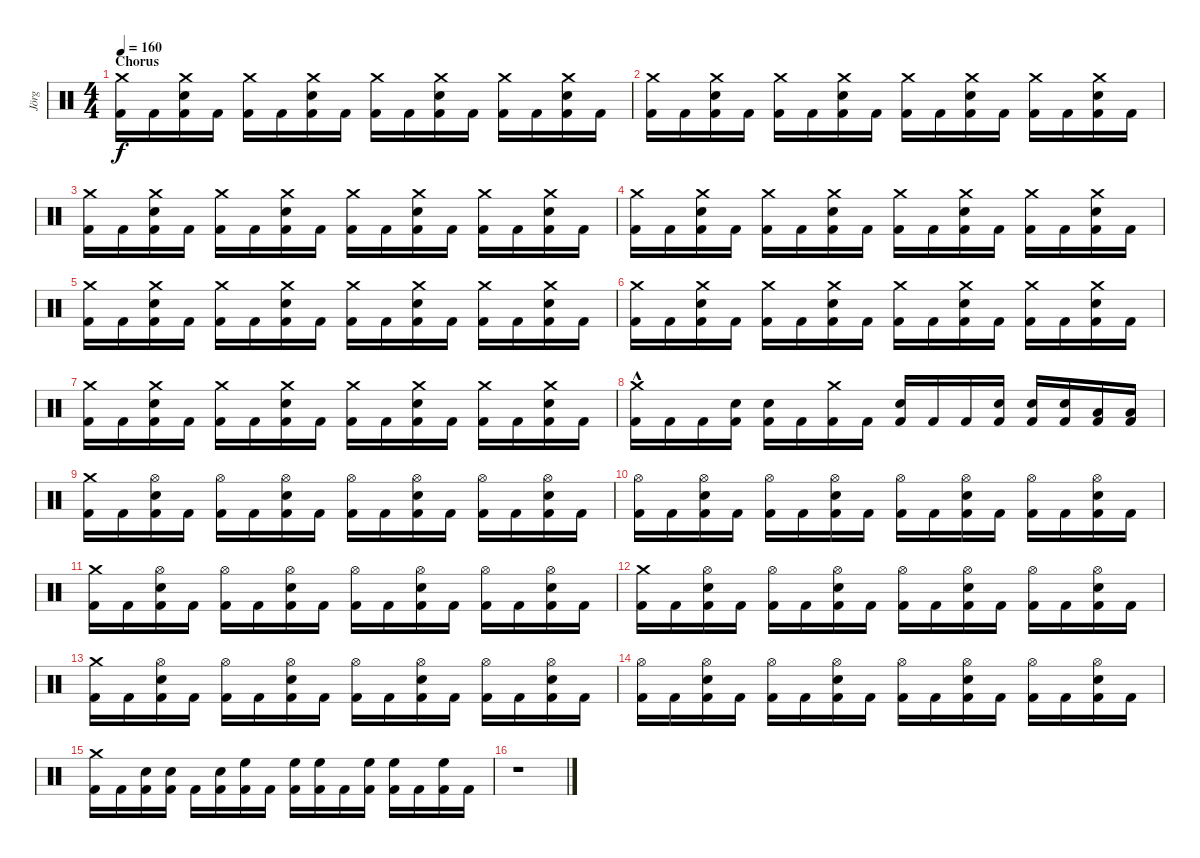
\track ("Jörg" "Jörg") {instrument percussion}
\staff {score}
\articulation defaults
\ts (4 4)
\section ("" "Chorus")
\tempo 160
\clef neutral
\ks c
("Crash medium (hit)" "Kick (hit) 2").16{dy f} "Kick (hit) 2".16 ("Crash medium (hit)" "Snare (hit) 2" "Kick (hit) 2").16 "Kick (hit) 2".16 ("Crash medium (hit)" "Kick (hit) 2").16 "Kick (hit) 2".16 ("Crash medium (hit)" "Snare (hit) 2" "Kick (hit) 2").16 "Kick (hit) 2".16 ("Crash medium (hit)" "Kick (hit) 2").16 "Kick (hit) 2".16 ("Crash medium (hit)" "Snare (hit) 2" "Kick (hit) 2").16 "Kick (hit) 2".16 ("Crash medium (hit)" "Kick (hit) 2").16 "Kick (hit) 2".16 ("Crash medium (hit)" "Snare (hit) 2" "Kick (hit) 2").16 "Kick (hit) 2".16 |
("Crash medium (hit)" "Kick (hit) 2").16 "Kick (hit) 2".16 ("Crash medium (hit)" "Snare (hit) 2" "Kick (hit) 2").16 "Kick (hit) 2".16 ("Crash medium (hit)" "Kick (hit) 2").16 "Kick (hit) 2".16 ("Crash medium (hit)" "Snare (hit) 2" "Kick (hit) 2").16 "Kick (hit) 2".16 ("Crash medium (hit)" "Kick (hit) 2").16 "Kick (hit) 2".16 ("Crash medium (hit)" "Snare (hit) 2" "Kick (hit) 2").16 "Kick (hit) 2".16 ("Crash medium (hit)" "Kick (hit) 2").16 "Kick (hit) 2".16 ("Crash medium (hit)" "Snare (hit) 2" "Kick (hit) 2").16 "Kick (hit) 2".16 |
("Crash medium (hit)" "Kick (hit) 2").16 "Kick (hit) 2".16 ("Crash medium (hit)" "Snare (hit) 2" "Kick (hit) 2").16 "Kick (hit) 2".16 ("Crash medium (hit)" "Kick (hit) 2").16 "Kick (hit) 2".16 ("Crash medium (hit)" "Snare (hit) 2" "Kick (hit) 2").16 "Kick (hit) 2".16 ("Crash medium (hit)" "Kick (hit) 2").16 "Kick (hit) 2".16 ("Crash medium (hit)" "Snare (hit) 2" "Kick (hit) 2").16 "Kick (hit) 2".16 ("Crash medium (hit)" "Kick (hit) 2").16 "Kick (hit) 2".16 ("Crash medium (hit)" "Snare (hit) 2" "Kick (hit) 2").16 "Kick (hit) 2".16 |
("Crash medium (hit)" "Kick (hit) 2").16 "Kick (hit) 2".16 ("Crash medium (hit)" "Snare (hit) 2" "Kick (hit) 2").16 "Kick (hit) 2".16 ("Crash medium (hit)" "Kick (hit) 2").16 "Kick (hit) 2".16 ("Crash medium (hit)" "Snare (hit) 2" "Kick (hit) 2").16 "Kick (hit) 2".16 ("Crash medium (hit)" "Kick (hit) 2").16 "Kick (hit) 2".16 ("Crash medium (hit)" "Snare (hit) 2" "Kick (hit) 2").16 "Kick (hit) 2".16 ("Crash medium (hit)" "Kick (hit) 2").16 "Kick (hit) 2".16 ("Crash medium (hit)" "Snare (hit) 2" "Kick (hit) 2").16 "Kick (hit) 2".16 |
("Crash medium (hit)" "Kick (hit) 2").16 "Kick (hit) 2".16 ("Crash medium (hit)" "Snare (hit) 2" "Kick (hit) 2").16 "Kick (hit) 2".16 ("Crash medium (hit)" "Kick (hit) 2").16 "Kick (hit) 2".16 ("Crash medium (hit)" "Snare (hit) 2" "Kick (hit) 2").16 "Kick (hit) 2".16 ("Crash medium (hit)" "Kick (hit) 2").16 "Kick (hit) 2".16 ("Crash medium (hit)" "Snare (hit) 2" "Kick (hit) 2").16 "Kick (hit) 2".16 ("Crash medium (hit)" "Kick (hit) 2").16 "Kick (hit) 2".16 ("Crash medium (hit)" "Snare (hit) 2" "Kick (hit) 2").16 "Kick (hit) 2".16 |
("Crash medium (hit)" "Kick (hit) 2").16 "Kick (hit) 2".16 ("Crash medium (hit)" "Snare (hit) 2" "Kick (hit) 2").16 "Kick (hit) 2".16 ("Crash medium (hit)" "Kick (hit) 2").16 "Kick (hit) 2".16 ("Crash medium (hit)" "Snare (hit) 2" "Kick (hit) 2").16 "Kick (hit) 2".16 ("Crash medium (hit)" "Kick (hit) 2").16 "Kick (hit) 2".16 ("Crash medium (hit)" "Snare (hit) 2" "Kick (hit) 2").16 "Kick (hit) 2".16 ("Crash medium (hit)" "Kick (hit) 2").16 "Kick (hit) 2".16 ("Crash medium (hit)" "Snare (hit) 2" "Kick (hit) 2").16 "Kick (hit) 2".16 |
("Crash medium (hit)" "Kick (hit) 2").16 "Kick (hit) 2".16 ("Crash medium (hit)" "Snare (hit) 2" "Kick (hit) 2").16 "Kick (hit) 2".16 ("Crash medium (hit)" "Kick (hit) 2").16 "Kick (hit) 2".16 ("Crash medium (hit)" "Snare (hit) 2" "Kick (hit) 2").16 "Kick (hit) 2".16 ("Crash medium (hit)" "Kick (hit) 2").16 "Kick (hit) 2".16 ("Crash medium (hit)" "Snare (hit) 2" "Kick (hit) 2").16 "Kick (hit) 2".16 ("Crash medium (hit)" "Kick (hit) 2").16 "Kick (hit) 2".16 ("Crash medium (hit)" "Snare (hit) 2" "Kick (hit) 2").16 "Kick (hit) 2".16 |
("Crash medium (hit)"{hac} "Kick (hit) 2").16 "Kick (hit) 2".16 "Kick (hit) 2".16 ("Snare (hit) 2" "Kick (hit) 2").16 ("Snare (hit) 2" "Kick (hit) 2").16 "Kick (hit) 2".16 ("Crash medium (hit)" "Kick (hit) 2").16 "Kick (hit) 2".16 ("Snare (hit) 2" "Kick (hit) 2").16 "Kick (hit) 2".16 "Kick (hit) 2".16 ("Snare (hit) 2" "Kick (hit) 2").16 ("Snare (hit) 2" "Kick (hit) 2").16 ("Snare (hit) 2" "Kick (hit) 2").16 ("Low Tom (hit)" "Kick (hit) 2").16 ("Low Tom (hit)" "Kick (hit) 2").16 |
("Crash medium (hit)" "Kick (hit) 2").16 "Kick (hit) 2".16 ("Hi-Hat (open)" "Snare (hit) 2" "Kick (hit) 2").16 "Kick (hit) 2".16 ("Hi-Hat (open)" "Kick (hit) 2").16 "Kick (hit) 2".16 ("Hi-Hat (open)" "Snare (hit) 2" "Kick (hit) 2").16 "Kick (hit) 2".16 ("Hi-Hat (open)" "Kick (hit) 2").16 "Kick (hit) 2".16 ("Hi-Hat (open)" "Snare (hit) 2" "Kick (hit) 2").16 "Kick (hit) 2".16 ("Hi-Hat (open)" "Kick (hit) 2").16 "Kick (hit) 2".16 ("Hi-Hat (open)" "Snare (hit) 2" "Kick (hit) 2").16 "Kick (hit) 2".16 |
("Hi-Hat (open)" "Kick (hit) 2").16 "Kick (hit) 2".16 ("Hi-Hat (open)" "Snare (hit) 2" "Kick (hit) 2").16 "Kick (hit) 2".16 ("Hi-Hat (open)" "Kick (hit) 2").16 "Kick (hit) 2".16 ("Hi-Hat (open)" "Snare (hit) 2" "Kick (hit) 2").16 "Kick (hit) 2".16 ("Hi-Hat (open)" "Kick (hit) 2").16 "Kick (hit) 2".16 ("Hi-Hat (open)" "Snare (hit) 2" "Kick (hit) 2").16 "Kick (hit) 2".16 ("Hi-Hat (open)" "Kick (hit) 2").16 "Kick (hit) 2".16 ("Hi-Hat (open)" "Snare (hit) 2" "Kick (hit) 2").16 "Kick (hit) 2".16 |
("Crash medium (hit)" "Kick (hit) 2").16 "Kick (hit) 2".16 ("Hi-Hat (open)" "Snare (hit) 2" "Kick (hit) 2").16 "Kick (hit) 2".16 ("Hi-Hat (open)" "Kick (hit) 2").16 "Kick (hit) 2".16 ("Hi-Hat (open)" "Snare (hit) 2" "Kick (hit) 2").16 "Kick (hit) 2".16 ("Hi-Hat (open)" "Kick (hit) 2").16 "Kick (hit) 2".16 ("Hi-Hat (open)" "Snare (hit) 2" "Kick (hit) 2").16 "Kick (hit) 2".16 ("Hi-Hat (open)" "Kick (hit) 2").16 "Kick (hit) 2".16 ("Hi-Hat (open)" "Snare (hit) 2" "Kick (hit) 2").16 "Kick (hit) 2".16 |
("Crash medium (hit)" "Kick (hit) 2").16 "Kick (hit) 2".16 ("Hi-Hat (open)" "Snare (hit) 2" "Kick (hit) 2").16 "Kick (hit) 2".16 ("Hi-Hat (open)" "Kick (hit) 2").16 "Kick (hit) 2".16 ("Hi-Hat (open)" "Snare (hit) 2" "Kick (hit) 2").16 "Kick (hit) 2".16 ("Hi-Hat (open)" "Kick (hit) 2").16 "Kick (hit) 2".16 ("Hi-Hat (open)" "Snare (hit) 2" "Kick (hit) 2").16 "Kick (hit) 2".16 ("Hi-Hat (open)" "Kick (hit) 2").16 "Kick (hit) 2".16 ("Hi-Hat (open)" "Snare (hit) 2" "Kick (hit) 2").16 "Kick (hit) 2".16 |
("Crash medium (hit)" "Kick (hit) 2").16 "Kick (hit) 2".16 ("Hi-Hat (open)" "Snare (hit) 2" "Kick (hit) 2").16 "Kick (hit) 2".16 ("Hi-Hat (open)" "Kick (hit) 2").16 "Kick (hit) 2".16 ("Hi-Hat (open)" "Snare (hit) 2" "Kick (hit) 2").16 "Kick (hit) 2".16 ("Hi-Hat (open)" "Kick (hit) 2").16 "Kick (hit) 2".16 ("Hi-Hat (open)" "Snare (hit) 2" "Kick (hit) 2").16 "Kick (hit) 2".16 ("Hi-Hat (open)" "Kick (hit) 2").16 "Kick (hit) 2".16 ("Hi-Hat (open)" "Snare (hit) 2" "Kick (hit) 2").16 "Kick (hit) 2".16 |
("Hi-Hat (open)" "Kick (hit) 2").16 "Kick (hit) 2".16 ("Hi-Hat (open)" "Snare (hit) 2" "Kick (hit) 2").16 "Kick (hit) 2".16 ("Hi-Hat (open)" "Kick (hit) 2").16 "Kick (hit) 2".16 ("Hi-Hat (open)" "Snare (hit) 2" "Kick (hit) 2").16 "Kick (hit) 2".16 ("Hi-Hat (open)" "Kick (hit) 2").16 "Kick (hit) 2".16 ("Hi-Hat (open)" "Snare (hit) 2" "Kick (hit) 2").16 "Kick (hit) 2".16 ("Hi-Hat (open)" "Kick (hit) 2").16 "Kick (hit) 2".16 ("Hi-Hat (open)" "Snare (hit) 2" "Kick (hit) 2").16 "Kick (hit) 2".16 |
("Crash medium (hit)" "Kick (hit) 2").16 "Kick (hit) 2".16 ("Snare (hit) 2" "Kick (hit) 2").16 ("Snare (hit) 2" "Kick (hit) 2").16 "Kick (hit) 2".16 ("Snare (hit) 2" "Kick (hit) 2").16 ("High Floor Tom (hit)" "Kick (hit) 2").16 "Kick (hit) 2".16 ("High Floor Tom (hit)" "Kick (hit) 2").16 ("High Floor Tom (hit)" "Kick (hit) 2").16 "Kick (hit) 2".16 ("High Floor Tom (hit)" "Kick (hit) 2").16 ("High Floor Tom (hit)" "Kick (hit) 2").16 "Kick (hit) 2".16 ("High Floor Tom (hit)" "Kick (hit) 2").16 "Kick (hit) 2".16 |
r.1
